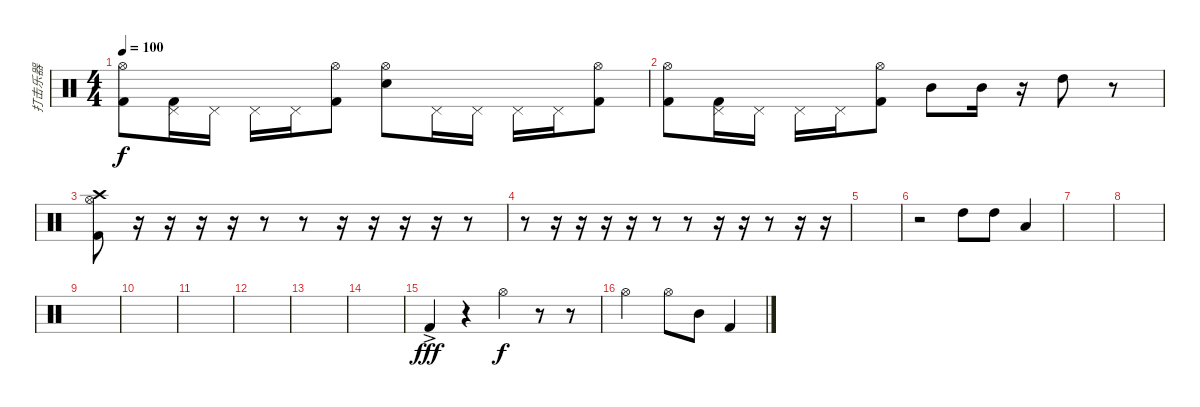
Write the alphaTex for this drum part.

\track ("打击乐器" "打击乐器") {instrument percussion}
\staff {score}
\articulation defaults
\ts (4 4)
\tempo 100
\clef neutral
\ks c
("Hi-Hat (open)" "Kick (hit) 2").8{dy f} ("Pedal Hi-Hat (hit)" "Kick (hit) 2").16 "Pedal Hi-Hat (hit)".16 "Pedal Hi-Hat (hit)".16 "Pedal Hi-Hat (hit)".16 ("Hi-Hat (open)" "Kick (hit) 2").8 ("Hi-Hat (open)" "Electric Snare (hit)").8 "Pedal Hi-Hat (hit)".16 "Pedal Hi-Hat (hit)".16 "Pedal Hi-Hat (hit)".16 "Pedal Hi-Hat (hit)".16 ("Hi-Hat (open)" "Kick (hit) 2").8 |
("Hi-Hat (open)" "Kick (hit) 2").8 ("Pedal Hi-Hat (hit)" "Kick (hit) 2").16 "Pedal Hi-Hat (hit)".16 "Pedal Hi-Hat (hit)".16 "Pedal Hi-Hat (hit)".16 ("Hi-Hat (open)" "Kick (hit) 2").8 "Mid Tom (hit)".8 "Mid Tom (hit)".16 r.16 "High Tom (hit)".8 r.8 |
("Crash high (hit)" "Hi-Hat (open)" "Kick (hit) 2").8 r.16 r.16 r.16 r.16 r.8 r.8 r.16 r.16 r.16 r.16 r.8 |
r.8 r.16 r.16 r.16 r.16 r.8 r.8 r.16 r.16 r.8 r.16 r.16 |
|
r.2 "High Tom (hit)".8 "High Tom (hit)".8 "Low Tom (hit)".4 |
|
|
|
|
|
|
|
|
"Kick (hit) 2"{ac}.4{dy fff} r.4 "Hi-Hat (open)".4{dy f} r.8 r.8 |
"Hi-Hat (open)".2 "Hi-Hat (open)".8 "Mid Tom (hit)".8 "Kick (hit) 2".4
